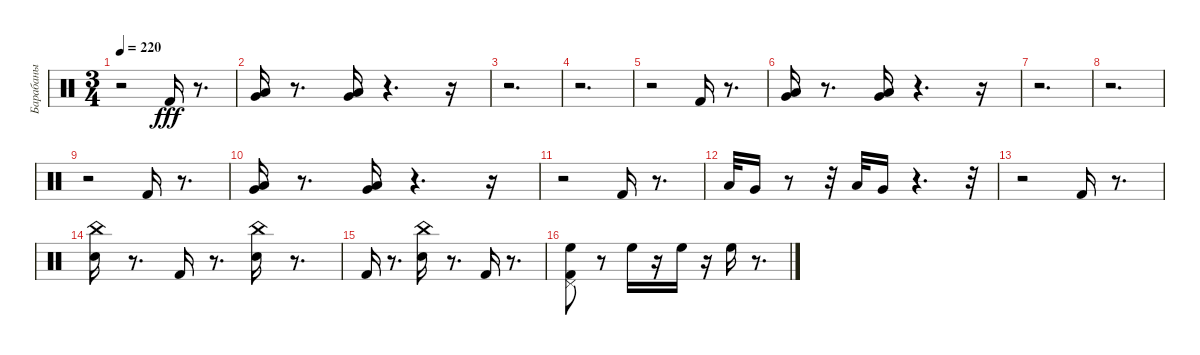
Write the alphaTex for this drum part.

\track ("Барабаны" "Барабаны") {instrument percussion}
\staff {score}
\articulation defaults
\ts (3 4)
\tempo 220
\clef neutral
\ks c
r.2{dy fff} "Kick (hit) 2".16 r.8{d} |
("Low Floor Tom (hit)" "Very Low Tom (hit)").16 r.8{d} ("Low Floor Tom (hit)" "Very Low Tom (hit)").16 r.4{d} r.16 |
r.2{d} |
r.2{d} |
r.2 "Kick (hit) 2".16 r.8{d} |
("Low Floor Tom (hit)" "Very Low Tom (hit)").16 r.8{d} ("Low Floor Tom (hit)" "Very Low Tom (hit)").16 r.4{d} r.16 |
r.2{d} |
r.2{d} |
r.2 "Kick (hit) 2".16 r.8{d} |
("Low Floor Tom (hit)" "Very Low Tom (hit)").16 r.8{d} ("Low Floor Tom (hit)" "Very Low Tom (hit)").16 r.4{d} r.16 |
r.2 "Kick (hit) 2".16 r.8{d} |
"Low Floor Tom (hit)".32 "Very Low Tom (hit)".16 r.8 r.32 "Low Floor Tom (hit)".32 "Very Low Tom (hit)".16 r.4{d} r.32 |
r.2 "Kick (hit) 2".16 r.8{d} |
("China (hit)" "Snare (hit) 2").16 r.8{d} "Kick (hit) 2".16 r.8{d} ("China (hit)" "Snare (hit) 2").16 r.8{d} |
"Kick (hit) 2".16 r.8{d} ("China (hit)" "Snare (hit) 2").16 r.8{d} "Kick (hit) 2".16 r.8{d} |
("Pedal Hi-Hat (hit)" "Kick (hit) 2" "High Floor Tom (hit)").8 r.8 "High Floor Tom (hit)".16 r.16 "High Floor Tom (hit)".16 r.16 "High Floor Tom (hit)".16 r.8{d}
